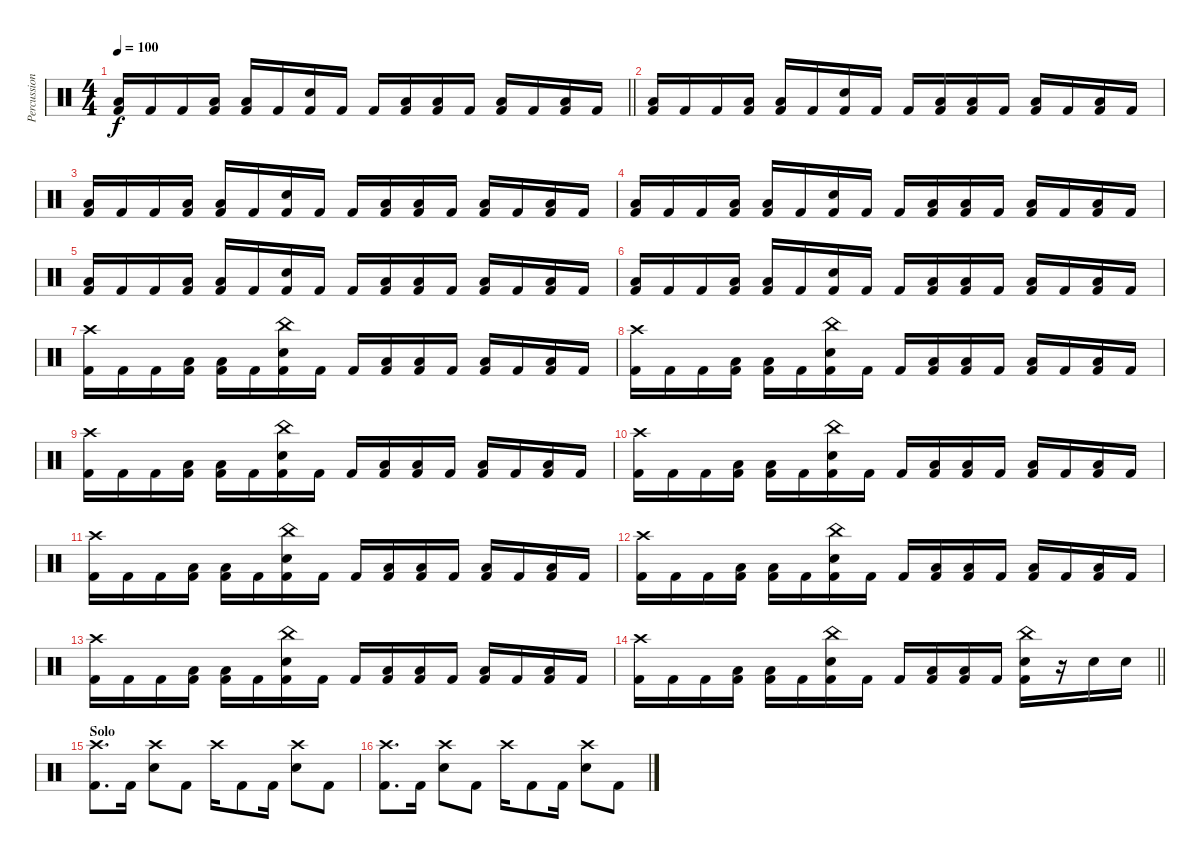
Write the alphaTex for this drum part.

\track ("Percussion" "Percussion") {instrument percussion}
\staff {score}
\articulation defaults
\ts (4 4)
\tempo 100
\clef neutral
\barLineRight lightlight
\ks c
("Low Floor Tom (hit)" "Kick (hit) 2").16{dy f} "Kick (hit) 2".16 "Kick (hit) 2".16 ("Low Floor Tom (hit)" "Kick (hit) 2").16 ("Low Floor Tom (hit)" "Kick (hit) 2").16 "Kick (hit) 2".16 ("Electric Snare (hit)" "Kick (hit) 2").16 "Kick (hit) 2".16 "Kick (hit) 2".16 ("Low Floor Tom (hit)" "Kick (hit) 2").16 ("Low Floor Tom (hit)" "Kick (hit) 2").16 "Kick (hit) 2".16 ("Low Floor Tom (hit)" "Kick (hit) 2").16 "Kick (hit) 2".16 ("Low Floor Tom (hit)" "Kick (hit) 2").16 "Kick (hit) 2".16 |
("Low Floor Tom (hit)" "Kick (hit) 2").16 "Kick (hit) 2".16 "Kick (hit) 2".16 ("Low Floor Tom (hit)" "Kick (hit) 2").16 ("Low Floor Tom (hit)" "Kick (hit) 2").16 "Kick (hit) 2".16 ("Electric Snare (hit)" "Kick (hit) 2").16 "Kick (hit) 2".16 "Kick (hit) 2".16 ("Low Floor Tom (hit)" "Kick (hit) 2").16 ("Low Floor Tom (hit)" "Kick (hit) 2").16 "Kick (hit) 2".16 ("Low Floor Tom (hit)" "Kick (hit) 2").16 "Kick (hit) 2".16 ("Low Floor Tom (hit)" "Kick (hit) 2").16 "Kick (hit) 2".16 |
("Low Floor Tom (hit)" "Kick (hit) 2").16 "Kick (hit) 2".16 "Kick (hit) 2".16 ("Low Floor Tom (hit)" "Kick (hit) 2").16 ("Low Floor Tom (hit)" "Kick (hit) 2").16 "Kick (hit) 2".16 ("Electric Snare (hit)" "Kick (hit) 2").16 "Kick (hit) 2".16 "Kick (hit) 2".16 ("Low Floor Tom (hit)" "Kick (hit) 2").16 ("Low Floor Tom (hit)" "Kick (hit) 2").16 "Kick (hit) 2".16 ("Low Floor Tom (hit)" "Kick (hit) 2").16 "Kick (hit) 2".16 ("Low Floor Tom (hit)" "Kick (hit) 2").16 "Kick (hit) 2".16 |
("Low Floor Tom (hit)" "Kick (hit) 2").16 "Kick (hit) 2".16 "Kick (hit) 2".16 ("Low Floor Tom (hit)" "Kick (hit) 2").16 ("Low Floor Tom (hit)" "Kick (hit) 2").16 "Kick (hit) 2".16 ("Electric Snare (hit)" "Kick (hit) 2").16 "Kick (hit) 2".16 "Kick (hit) 2".16 ("Low Floor Tom (hit)" "Kick (hit) 2").16 ("Low Floor Tom (hit)" "Kick (hit) 2").16 "Kick (hit) 2".16 ("Low Floor Tom (hit)" "Kick (hit) 2").16 "Kick (hit) 2".16 ("Low Floor Tom (hit)" "Kick (hit) 2").16 "Kick (hit) 2".16 |
("Low Floor Tom (hit)" "Kick (hit) 2").16 "Kick (hit) 2".16 "Kick (hit) 2".16 ("Low Floor Tom (hit)" "Kick (hit) 2").16 ("Low Floor Tom (hit)" "Kick (hit) 2").16 "Kick (hit) 2".16 ("Electric Snare (hit)" "Kick (hit) 2").16 "Kick (hit) 2".16 "Kick (hit) 2".16 ("Low Floor Tom (hit)" "Kick (hit) 2").16 ("Low Floor Tom (hit)" "Kick (hit) 2").16 "Kick (hit) 2".16 ("Low Floor Tom (hit)" "Kick (hit) 2").16 "Kick (hit) 2".16 ("Low Floor Tom (hit)" "Kick (hit) 2").16 "Kick (hit) 2".16 |
("Low Floor Tom (hit)" "Kick (hit) 2").16 "Kick (hit) 2".16 "Kick (hit) 2".16 ("Low Floor Tom (hit)" "Kick (hit) 2").16 ("Low Floor Tom (hit)" "Kick (hit) 2").16 "Kick (hit) 2".16 ("Electric Snare (hit)" "Kick (hit) 2").16 "Kick (hit) 2".16 "Kick (hit) 2".16 ("Low Floor Tom (hit)" "Kick (hit) 2").16 ("Low Floor Tom (hit)" "Kick (hit) 2").16 "Kick (hit) 2".16 ("Low Floor Tom (hit)" "Kick (hit) 2").16 "Kick (hit) 2".16 ("Low Floor Tom (hit)" "Kick (hit) 2").16 "Kick (hit) 2".16 |
("Crash high (hit)" "Kick (hit) 2").16 "Kick (hit) 2".16 "Kick (hit) 2".16 ("Low Floor Tom (hit)" "Kick (hit) 2").16 ("Low Floor Tom (hit)" "Kick (hit) 2").16 "Kick (hit) 2".16 ("China (hit)" "Electric Snare (hit)" "Kick (hit) 2").16 "Kick (hit) 2".16 "Kick (hit) 2".16 ("Low Floor Tom (hit)" "Kick (hit) 2").16 ("Low Floor Tom (hit)" "Kick (hit) 2").16 "Kick (hit) 2".16 ("Low Floor Tom (hit)" "Kick (hit) 2").16 "Kick (hit) 2".16 ("Low Floor Tom (hit)" "Kick (hit) 2").16 "Kick (hit) 2".16 |
("Crash high (hit)" "Kick (hit) 2").16 "Kick (hit) 2".16 "Kick (hit) 2".16 ("Low Floor Tom (hit)" "Kick (hit) 2").16 ("Low Floor Tom (hit)" "Kick (hit) 2").16 "Kick (hit) 2".16 ("China (hit)" "Electric Snare (hit)" "Kick (hit) 2").16 "Kick (hit) 2".16 "Kick (hit) 2".16 ("Low Floor Tom (hit)" "Kick (hit) 2").16 ("Low Floor Tom (hit)" "Kick (hit) 2").16 "Kick (hit) 2".16 ("Low Floor Tom (hit)" "Kick (hit) 2").16 "Kick (hit) 2".16 ("Low Floor Tom (hit)" "Kick (hit) 2").16 "Kick (hit) 2".16 |
("Crash high (hit)" "Kick (hit) 2").16 "Kick (hit) 2".16 "Kick (hit) 2".16 ("Low Floor Tom (hit)" "Kick (hit) 2").16 ("Low Floor Tom (hit)" "Kick (hit) 2").16 "Kick (hit) 2".16 ("China (hit)" "Electric Snare (hit)" "Kick (hit) 2").16 "Kick (hit) 2".16 "Kick (hit) 2".16 ("Low Floor Tom (hit)" "Kick (hit) 2").16 ("Low Floor Tom (hit)" "Kick (hit) 2").16 "Kick (hit) 2".16 ("Low Floor Tom (hit)" "Kick (hit) 2").16 "Kick (hit) 2".16 ("Low Floor Tom (hit)" "Kick (hit) 2").16 "Kick (hit) 2".16 |
("Crash high (hit)" "Kick (hit) 2").16 "Kick (hit) 2".16 "Kick (hit) 2".16 ("Low Floor Tom (hit)" "Kick (hit) 2").16 ("Low Floor Tom (hit)" "Kick (hit) 2").16 "Kick (hit) 2".16 ("China (hit)" "Electric Snare (hit)" "Kick (hit) 2").16 "Kick (hit) 2".16 "Kick (hit) 2".16 ("Low Floor Tom (hit)" "Kick (hit) 2").16 ("Low Floor Tom (hit)" "Kick (hit) 2").16 "Kick (hit) 2".16 ("Low Floor Tom (hit)" "Kick (hit) 2").16 "Kick (hit) 2".16 ("Low Floor Tom (hit)" "Kick (hit) 2").16 "Kick (hit) 2".16 |
("Crash high (hit)" "Kick (hit) 2").16 "Kick (hit) 2".16 "Kick (hit) 2".16 ("Low Floor Tom (hit)" "Kick (hit) 2").16 ("Low Floor Tom (hit)" "Kick (hit) 2").16 "Kick (hit) 2".16 ("China (hit)" "Electric Snare (hit)" "Kick (hit) 2").16 "Kick (hit) 2".16 "Kick (hit) 2".16 ("Low Floor Tom (hit)" "Kick (hit) 2").16 ("Low Floor Tom (hit)" "Kick (hit) 2").16 "Kick (hit) 2".16 ("Low Floor Tom (hit)" "Kick (hit) 2").16 "Kick (hit) 2".16 ("Low Floor Tom (hit)" "Kick (hit) 2").16 "Kick (hit) 2".16 |
("Crash high (hit)" "Kick (hit) 2").16 "Kick (hit) 2".16 "Kick (hit) 2".16 ("Low Floor Tom (hit)" "Kick (hit) 2").16 ("Low Floor Tom (hit)" "Kick (hit) 2").16 "Kick (hit) 2".16 ("China (hit)" "Electric Snare (hit)" "Kick (hit) 2").16 "Kick (hit) 2".16 "Kick (hit) 2".16 ("Low Floor Tom (hit)" "Kick (hit) 2").16 ("Low Floor Tom (hit)" "Kick (hit) 2").16 "Kick (hit) 2".16 ("Low Floor Tom (hit)" "Kick (hit) 2").16 "Kick (hit) 2".16 ("Low Floor Tom (hit)" "Kick (hit) 2").16 "Kick (hit) 2".16 |
("Crash high (hit)" "Kick (hit) 2").16 "Kick (hit) 2".16 "Kick (hit) 2".16 ("Low Floor Tom (hit)" "Kick (hit) 2").16 ("Low Floor Tom (hit)" "Kick (hit) 2").16 "Kick (hit) 2".16 ("China (hit)" "Electric Snare (hit)" "Kick (hit) 2").16 "Kick (hit) 2".16 "Kick (hit) 2".16 ("Low Floor Tom (hit)" "Kick (hit) 2").16 ("Low Floor Tom (hit)" "Kick (hit) 2").16 "Kick (hit) 2".16 ("Low Floor Tom (hit)" "Kick (hit) 2").16 "Kick (hit) 2".16 ("Low Floor Tom (hit)" "Kick (hit) 2").16 "Kick (hit) 2".16 |
\barLineRight lightlight
("Crash high (hit)" "Kick (hit) 2").16 "Kick (hit) 2".16 "Kick (hit) 2".16 ("Low Floor Tom (hit)" "Kick (hit) 2").16 ("Low Floor Tom (hit)" "Kick (hit) 2").16 "Kick (hit) 2".16 ("China (hit)" "Electric Snare (hit)" "Kick (hit) 2").16 "Kick (hit) 2".16 "Kick (hit) 2".16 ("Low Floor Tom (hit)" "Kick (hit) 2").16 ("Low Floor Tom (hit)" "Kick (hit) 2").16 "Kick (hit) 2".16 ("China (hit)" "Electric Snare (hit)" "Kick (hit) 2").16 r.16 "Electric Snare (hit)".16 "Electric Snare (hit)".16 |
\section ("" "Solo")
("Crash high (hit)" "Kick (hit) 2").8{d} "Kick (hit) 2".16 ("Crash high (hit)" "Electric Snare (hit)").8 "Kick (hit) 2".8 "Crash high (hit)".16 "Kick (hit) 2".8 "Kick (hit) 2".16 ("Crash high (hit)" "Electric Snare (hit)").8 "Kick (hit) 2".8 |
("Crash high (hit)" "Kick (hit) 2").8{d} "Kick (hit) 2".16 ("Crash high (hit)" "Electric Snare (hit)").8 "Kick (hit) 2".8 "Crash high (hit)".16 "Kick (hit) 2".8 "Kick (hit) 2".16 ("Crash high (hit)" "Electric Snare (hit)").8 "Kick (hit) 2".8
